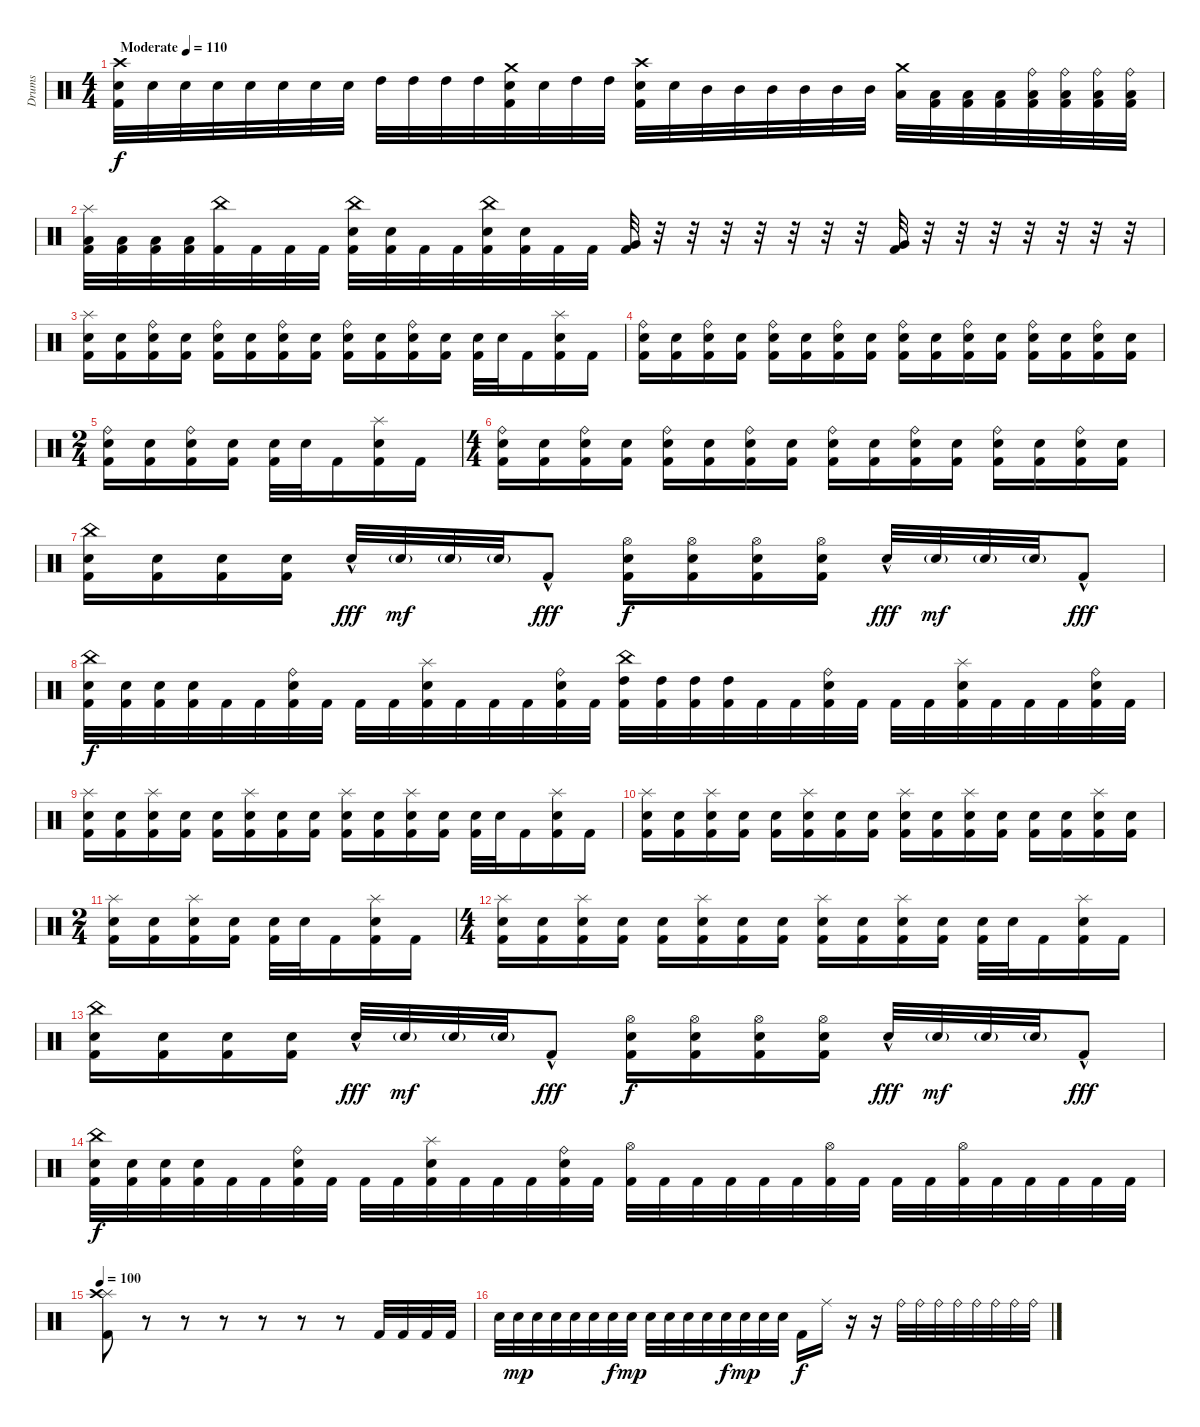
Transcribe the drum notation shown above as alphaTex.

\track ("Drums " "Drums ") {instrument percussion}
\staff {score}
\articulation defaults
\ts (4 4)
\tempo (110 "Moderate")
\clef neutral
\ks c
("Crash high (hit)" "Electric Snare (hit)" "Kick (hit) 2").32{dy f} "Electric Snare (hit)".32 "Electric Snare (hit)".32 "Electric Snare (hit)".32 "Electric Snare (hit)".32 "Electric Snare (hit)".32 "Electric Snare (hit)".32 "Electric Snare (hit)".32 "High Tom (hit)".32 "High Tom (hit)".32 "High Tom (hit)".32 "High Tom (hit)".32 ("Crash medium (hit)" "Electric Snare (hit)" "Kick (hit) 2").32 "Electric Snare (hit)".32 "High Tom (hit)".32 "High Tom (hit)".32 ("Crash high (hit)" "Electric Snare (hit)" "Kick (hit) 2").32 "Electric Snare (hit)".32 "Mid Tom (hit)".32 "Mid Tom (hit)".32 "Mid Tom (hit)".32 "Mid Tom (hit)".32 "Mid Tom (hit)".32 "Mid Tom (hit)".32 ("Crash medium (hit)" "Low Tom (hit)").32 ("Low Tom (hit)" "Kick (hit) 2").32 ("Low Tom (hit)" "Kick (hit) 2").32 ("Low Tom (hit)" "Kick (hit) 2").32 ("Ride (bell)" "Low Tom (hit)" "Kick (hit) 2").32 ("Ride (bell)" "Low Tom (hit)" "Kick (hit) 2").32 ("Ride (bell)" "Low Tom (hit)" "Kick (hit) 2").32 ("Ride (bell)" "Low Tom (hit)" "Kick (hit) 2").32 |
("Splash (hit)" "Low Tom (hit)" "Kick (hit) 2").32 ("Low Tom (hit)" "Kick (hit) 2").32 ("Low Tom (hit)" "Kick (hit) 2").32 ("Low Tom (hit)" "Kick (hit) 2").32 ("China (hit)" "Kick (hit) 2").32 "Kick (hit) 2".32 "Kick (hit) 2".32 "Kick (hit) 2".32 ("China (hit)" "Electric Snare (hit)" "Kick (hit) 2").32 ("Electric Snare (hit)" "Kick (hit) 2").32 "Kick (hit) 2".32 "Kick (hit) 2".32 ("China (hit)" "Electric Snare (hit)" "Kick (hit) 2").32 ("Electric Snare (hit)" "Kick (hit) 2").32 "Kick (hit) 2".32 "Kick (hit) 2".32 ("Very Low Tom (hit)" "Kick (hit) 2").32 r.32 r.32 r.32 r.32 r.32 r.32 r.32 ("Very Low Tom (hit)" "Kick (hit) 2").32 r.32 r.32 r.32 r.32 r.32 r.32 r.32 |
("Splash (hit)" "Electric Snare (hit)" "Kick (hit) 2").16 ("Electric Snare (hit)" "Kick (hit) 2").16 ("Ride (bell)" "Electric Snare (hit)" "Kick (hit) 2").16 ("Electric Snare (hit)" "Kick (hit) 2").16 ("Ride (bell)" "Electric Snare (hit)" "Kick (hit) 2").16 ("Electric Snare (hit)" "Kick (hit) 2").16 ("Ride (bell)" "Electric Snare (hit)" "Kick (hit) 2").16 ("Electric Snare (hit)" "Kick (hit) 2").16 ("Ride (bell)" "Electric Snare (hit)" "Kick (hit) 2").16 ("Electric Snare (hit)" "Kick (hit) 2").16 ("Ride (bell)" "Electric Snare (hit)" "Kick (hit) 2").16 ("Electric Snare (hit)" "Kick (hit) 2").16 ("Electric Snare (hit)" "Kick (hit) 2").32 "Electric Snare (hit)".32 "Kick (hit) 2".16 ("Splash (hit)" "Electric Snare (hit)" "Kick (hit) 2").16 "Kick (hit) 2".16 |
("Ride (bell)" "Electric Snare (hit)" "Kick (hit) 2").16 ("Electric Snare (hit)" "Kick (hit) 2").16 ("Ride (bell)" "Electric Snare (hit)" "Kick (hit) 2").16 ("Electric Snare (hit)" "Kick (hit) 2").16 ("Ride (bell)" "Electric Snare (hit)" "Kick (hit) 2").16 ("Electric Snare (hit)" "Kick (hit) 2").16 ("Ride (bell)" "Electric Snare (hit)" "Kick (hit) 2").16 ("Electric Snare (hit)" "Kick (hit) 2").16 ("Ride (bell)" "Electric Snare (hit)" "Kick (hit) 2").16 ("Electric Snare (hit)" "Kick (hit) 2").16 ("Ride (bell)" "Electric Snare (hit)" "Kick (hit) 2").16 ("Electric Snare (hit)" "Kick (hit) 2").16 ("Ride (bell)" "Electric Snare (hit)" "Kick (hit) 2").16 ("Electric Snare (hit)" "Kick (hit) 2").16 ("Ride (bell)" "Electric Snare (hit)" "Kick (hit) 2").16 ("Electric Snare (hit)" "Kick (hit) 2").16 |
\ts (2 4)
("Ride (bell)" "Electric Snare (hit)" "Kick (hit) 2").16 ("Electric Snare (hit)" "Kick (hit) 2").16 ("Ride (bell)" "Electric Snare (hit)" "Kick (hit) 2").16 ("Electric Snare (hit)" "Kick (hit) 2").16 ("Electric Snare (hit)" "Kick (hit) 2").32 "Electric Snare (hit)".32 "Kick (hit) 2".16 ("Splash (hit)" "Electric Snare (hit)" "Kick (hit) 2").16 "Kick (hit) 2".16 |
\ts (4 4)
("Ride (bell)" "Electric Snare (hit)" "Kick (hit) 2").16 ("Electric Snare (hit)" "Kick (hit) 2").16 ("Ride (bell)" "Electric Snare (hit)" "Kick (hit) 2").16 ("Electric Snare (hit)" "Kick (hit) 2").16 ("Ride (bell)" "Electric Snare (hit)" "Kick (hit) 2").16 ("Electric Snare (hit)" "Kick (hit) 2").16 ("Ride (bell)" "Electric Snare (hit)" "Kick (hit) 2").16 ("Electric Snare (hit)" "Kick (hit) 2").16 ("Ride (bell)" "Electric Snare (hit)" "Kick (hit) 2").16 ("Electric Snare (hit)" "Kick (hit) 2").16 ("Ride (bell)" "Electric Snare (hit)" "Kick (hit) 2").16 ("Electric Snare (hit)" "Kick (hit) 2").16 ("Ride (bell)" "Electric Snare (hit)" "Kick (hit) 2").16 ("Electric Snare (hit)" "Kick (hit) 2").16 ("Ride (bell)" "Electric Snare (hit)" "Kick (hit) 2").16 ("Electric Snare (hit)" "Kick (hit) 2").16 |
("China (hit)" "Electric Snare (hit)" "Kick (hit) 2").16 ("Electric Snare (hit)" "Kick (hit) 2").16 ("Electric Snare (hit)" "Kick (hit) 2").16 ("Electric Snare (hit)" "Kick (hit) 2").16 "Electric Snare (hit)"{hac}.32{dy fff} "Electric Snare (hit)"{g}.32{dy mf} "Electric Snare (hit)"{g}.32 "Electric Snare (hit)"{g}.32 "Kick (hit) 2"{hac}.8{dy fff} ("Hi-Hat (open)" "Electric Snare (hit)" "Kick (hit) 2").16{dy f} ("Hi-Hat (open)" "Electric Snare (hit)" "Kick (hit) 2").16 ("Hi-Hat (open)" "Electric Snare (hit)" "Kick (hit) 2").16 ("Hi-Hat (open)" "Electric Snare (hit)" "Kick (hit) 2").16 "Electric Snare (hit)"{hac}.32{dy fff} "Electric Snare (hit)"{g}.32{dy mf} "Electric Snare (hit)"{g}.32 "Electric Snare (hit)"{g}.32 "Kick (hit) 2"{hac}.8{dy fff} |
("China (hit)" "Electric Snare (hit)" "Kick (hit) 2").32{dy f} ("Electric Snare (hit)" "Kick (hit) 2").32 ("Electric Snare (hit)" "Kick (hit) 2").32 ("Electric Snare (hit)" "Kick (hit) 2").32 "Kick (hit) 2".32 "Kick (hit) 2".32 ("Ride (bell)" "Electric Snare (hit)" "Kick (hit) 2").32 "Kick (hit) 2".32 "Kick (hit) 2".32 "Kick (hit) 2".32 ("Splash (hit)" "Electric Snare (hit)" "Kick (hit) 2").32 "Kick (hit) 2".32 "Kick (hit) 2".32 "Kick (hit) 2".32 ("Ride (bell)" "Electric Snare (hit)" "Kick (hit) 2").32 "Kick (hit) 2".32 ("China (hit)" "High Tom (hit)" "Kick (hit) 2").32 ("High Tom (hit)" "Kick (hit) 2").32 ("High Tom (hit)" "Kick (hit) 2").32 ("High Tom (hit)" "Kick (hit) 2").32 "Kick (hit) 2".32 "Kick (hit) 2".32 ("Ride (bell)" "Electric Snare (hit)" "Kick (hit) 2").32 "Kick (hit) 2".32 "Kick (hit) 2".32 "Kick (hit) 2".32 ("Splash (hit)" "Electric Snare (hit)" "Kick (hit) 2").32 "Kick (hit) 2".32 "Kick (hit) 2".32 "Kick (hit) 2".32 ("Ride (bell)" "Electric Snare (hit)" "Kick (hit) 2").32 "Kick (hit) 2".32 |
("Splash (hit)" "Electric Snare (hit)" "Kick (hit) 2").16 ("Electric Snare (hit)" "Kick (hit) 2").16 ("Splash (hit)" "Electric Snare (hit)" "Kick (hit) 2").16 ("Electric Snare (hit)" "Kick (hit) 2").16 ("Electric Snare (hit)" "Kick (hit) 2").16 ("Splash (hit)" "Electric Snare (hit)" "Kick (hit) 2").16 ("Electric Snare (hit)" "Kick (hit) 2").16 ("Electric Snare (hit)" "Kick (hit) 2").16 ("Splash (hit)" "Electric Snare (hit)" "Kick (hit) 2").16 ("Electric Snare (hit)" "Kick (hit) 2").16 ("Splash (hit)" "Electric Snare (hit)" "Kick (hit) 2").16 ("Electric Snare (hit)" "Kick (hit) 2").16 ("Electric Snare (hit)" "Kick (hit) 2").32 "Electric Snare (hit)".32 "Kick (hit) 2".16 ("Splash (hit)" "Electric Snare (hit)" "Kick (hit) 2").16 "Kick (hit) 2".16 |
("Splash (hit)" "Electric Snare (hit)" "Kick (hit) 2").16 ("Electric Snare (hit)" "Kick (hit) 2").16 ("Splash (hit)" "Electric Snare (hit)" "Kick (hit) 2").16 ("Electric Snare (hit)" "Kick (hit) 2").16 ("Electric Snare (hit)" "Kick (hit) 2").16 ("Splash (hit)" "Electric Snare (hit)" "Kick (hit) 2").16 ("Electric Snare (hit)" "Kick (hit) 2").16 ("Electric Snare (hit)" "Kick (hit) 2").16 ("Splash (hit)" "Electric Snare (hit)" "Kick (hit) 2").16 ("Electric Snare (hit)" "Kick (hit) 2").16 ("Splash (hit)" "Electric Snare (hit)" "Kick (hit) 2").16 ("Electric Snare (hit)" "Kick (hit) 2").16 ("Electric Snare (hit)" "Kick (hit) 2").16 ("Electric Snare (hit)" "Kick (hit) 2").16 ("Splash (hit)" "Electric Snare (hit)" "Kick (hit) 2").16 ("Electric Snare (hit)" "Kick (hit) 2").16 |
\ts (2 4)
("Splash (hit)" "Electric Snare (hit)" "Kick (hit) 2").16 ("Electric Snare (hit)" "Kick (hit) 2").16 ("Splash (hit)" "Electric Snare (hit)" "Kick (hit) 2").16 ("Electric Snare (hit)" "Kick (hit) 2").16 ("Electric Snare (hit)" "Kick (hit) 2").32 "Electric Snare (hit)".32 "Kick (hit) 2".16 ("Splash (hit)" "Electric Snare (hit)" "Kick (hit) 2").16 "Kick (hit) 2".16 |
\ts (4 4)
("Splash (hit)" "Electric Snare (hit)" "Kick (hit) 2").16 ("Electric Snare (hit)" "Kick (hit) 2").16 ("Splash (hit)" "Electric Snare (hit)" "Kick (hit) 2").16 ("Electric Snare (hit)" "Kick (hit) 2").16 ("Electric Snare (hit)" "Kick (hit) 2").16 ("Splash (hit)" "Electric Snare (hit)" "Kick (hit) 2").16 ("Electric Snare (hit)" "Kick (hit) 2").16 ("Electric Snare (hit)" "Kick (hit) 2").16 ("Splash (hit)" "Electric Snare (hit)" "Kick (hit) 2").16 ("Electric Snare (hit)" "Kick (hit) 2").16 ("Splash (hit)" "Electric Snare (hit)" "Kick (hit) 2").16 ("Electric Snare (hit)" "Kick (hit) 2").16 ("Electric Snare (hit)" "Kick (hit) 2").32 "Electric Snare (hit)".32 "Kick (hit) 2".16 ("Splash (hit)" "Electric Snare (hit)" "Kick (hit) 2").16 "Kick (hit) 2".16 |
("China (hit)" "Electric Snare (hit)" "Kick (hit) 2").16 ("Electric Snare (hit)" "Kick (hit) 2").16 ("Electric Snare (hit)" "Kick (hit) 2").16 ("Electric Snare (hit)" "Kick (hit) 2").16 "Electric Snare (hit)"{hac}.32{dy fff} "Electric Snare (hit)"{g}.32{dy mf} "Electric Snare (hit)"{g}.32 "Electric Snare (hit)"{g}.32 "Kick (hit) 2"{hac}.8{dy fff} ("Hi-Hat (open)" "Electric Snare (hit)" "Kick (hit) 2").16{dy f} ("Hi-Hat (open)" "Electric Snare (hit)" "Kick (hit) 2").16 ("Hi-Hat (open)" "Electric Snare (hit)" "Kick (hit) 2").16 ("Hi-Hat (open)" "Electric Snare (hit)" "Kick (hit) 2").16 "Electric Snare (hit)"{hac}.32{dy fff} "Electric Snare (hit)"{g}.32{dy mf} "Electric Snare (hit)"{g}.32 "Electric Snare (hit)"{g}.32 "Kick (hit) 2"{hac}.8{dy fff} |
("China (hit)" "Electric Snare (hit)" "Kick (hit) 2").32{dy f} ("Electric Snare (hit)" "Kick (hit) 2").32 ("Electric Snare (hit)" "Kick (hit) 2").32 ("Electric Snare (hit)" "Kick (hit) 2").32 "Kick (hit) 2".32 "Kick (hit) 2".32 ("Ride (bell)" "Electric Snare (hit)" "Kick (hit) 2").32 "Kick (hit) 2".32 "Kick (hit) 2".32 "Kick (hit) 2".32 ("Splash (hit)" "Electric Snare (hit)" "Kick (hit) 2").32 "Kick (hit) 2".32 "Kick (hit) 2".32 "Kick (hit) 2".32 ("Ride (bell)" "Electric Snare (hit)" "Kick (hit) 2").32 "Kick (hit) 2".32 ("Hi-Hat (open)" "Kick (hit) 2").32 "Kick (hit) 2".32 "Kick (hit) 2".32 "Kick (hit) 2".32 "Kick (hit) 2".32 "Kick (hit) 2".32 ("Hi-Hat (open)" "Kick (hit) 2").32 "Kick (hit) 2".32 "Kick (hit) 2".32 "Kick (hit) 2".32 ("Hi-Hat (open)" "Kick (hit) 2").32 "Kick (hit) 2".32 "Kick (hit) 2".32 "Kick (hit) 2".32 "Kick (hit) 2".32 "Kick (hit) 2".32 |
\tempo 100
("Splash (hit)" "Crash high (hit)" "Kick (hit) 2").8 r.8 r.8 r.8 r.8 r.8 r.8 "Kick (hit) 2".32 "Kick (hit) 2".32 "Kick (hit) 2".32 "Kick (hit) 2".32 |
"Electric Snare (hit)".32 "Electric Snare (hit)".32{dy mp} "Electric Snare (hit)".32 "Electric Snare (hit)".32 "Electric Snare (hit)".32 "Electric Snare (hit)".32 "Electric Snare (hit)".32{dy f} "Electric Snare (hit)".32{dy mp} "Electric Snare (hit)".32 "Electric Snare (hit)".32 "Electric Snare (hit)".32 "Electric Snare (hit)".32 "Electric Snare (hit)".32{dy f} "Electric Snare (hit)".32{dy mp} "Electric Snare (hit)".32 "Electric Snare (hit)".32 "Kick (hit) 2".16{dy f} "Ride (middle)".16 r.16 r.16 "Ride (bell)".32 "Ride (bell)".32 "Ride (bell)".32 "Ride (bell)".32 "Ride (bell)".32 "Ride (bell)".32 "Ride (bell)".32 "Ride (bell)".32
